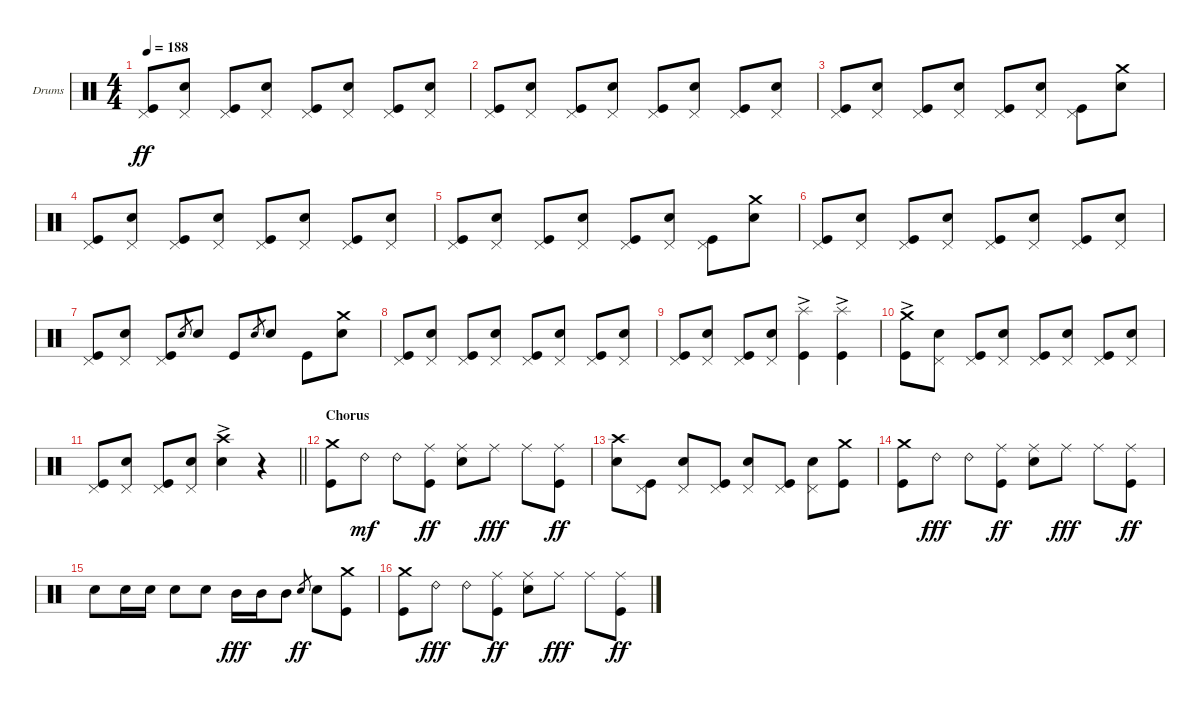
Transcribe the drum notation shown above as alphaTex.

\bracketExtendMode groupsimilarinstruments
\firstSystemTrackNameOrientation horizontal
\otherSystemsTrackNameOrientation horizontal
\track ("Drums" "Drums") {instrument percussion}
\staff {score}
\articulation defaults
\ts (4 4)
\tempo 188
\clef neutral
\ks c
("Kick (hit)" "Pedal Hi-Hat (hit)").8{dy ff} ("Snare (hit) 2" "Pedal Hi-Hat (hit)").8 ("Kick (hit)" "Pedal Hi-Hat (hit)").8 ("Snare (hit) 2" "Pedal Hi-Hat (hit)").8 ("Kick (hit)" "Pedal Hi-Hat (hit)").8 ("Snare (hit) 2" "Pedal Hi-Hat (hit)").8 ("Kick (hit)" "Pedal Hi-Hat (hit)").8 ("Snare (hit) 2" "Pedal Hi-Hat (hit)").8 |
("Kick (hit)" "Pedal Hi-Hat (hit)").8 ("Snare (hit) 2" "Pedal Hi-Hat (hit)").8 ("Kick (hit)" "Pedal Hi-Hat (hit)").8 ("Snare (hit) 2" "Pedal Hi-Hat (hit)").8 ("Kick (hit)" "Pedal Hi-Hat (hit)").8 ("Snare (hit) 2" "Pedal Hi-Hat (hit)").8 ("Kick (hit)" "Pedal Hi-Hat (hit)").8 ("Snare (hit) 2" "Pedal Hi-Hat (hit)").8 |
("Kick (hit)" "Pedal Hi-Hat (hit)").8 ("Snare (hit) 2" "Pedal Hi-Hat (hit)").8 ("Kick (hit)" "Pedal Hi-Hat (hit)").8 ("Snare (hit) 2" "Pedal Hi-Hat (hit)").8 ("Kick (hit)" "Pedal Hi-Hat (hit)").8 ("Snare (hit) 2" "Pedal Hi-Hat (hit)").8 ("Kick (hit)" "Pedal Hi-Hat (hit)").8 ("Snare (hit) 2" "Crash medium (hit)").8 |
("Kick (hit)" "Pedal Hi-Hat (hit)").8 ("Snare (hit) 2" "Pedal Hi-Hat (hit)").8 ("Kick (hit)" "Pedal Hi-Hat (hit)").8 ("Snare (hit) 2" "Pedal Hi-Hat (hit)").8 ("Kick (hit)" "Pedal Hi-Hat (hit)").8 ("Snare (hit) 2" "Pedal Hi-Hat (hit)").8 ("Kick (hit)" "Pedal Hi-Hat (hit)").8 ("Snare (hit) 2" "Pedal Hi-Hat (hit)").8 |
("Kick (hit)" "Pedal Hi-Hat (hit)").8 ("Snare (hit) 2" "Pedal Hi-Hat (hit)").8 ("Kick (hit)" "Pedal Hi-Hat (hit)").8 ("Snare (hit) 2" "Pedal Hi-Hat (hit)").8 ("Kick (hit)" "Pedal Hi-Hat (hit)").8 ("Snare (hit) 2" "Pedal Hi-Hat (hit)").8 ("Kick (hit)" "Pedal Hi-Hat (hit)").8 ("Snare (hit) 2" "Crash medium (hit)").8 |
("Kick (hit)" "Pedal Hi-Hat (hit)").8 ("Snare (hit) 2" "Pedal Hi-Hat (hit)").8 ("Kick (hit)" "Pedal Hi-Hat (hit)").8 ("Snare (hit) 2" "Pedal Hi-Hat (hit)").8 ("Kick (hit)" "Pedal Hi-Hat (hit)").8 ("Snare (hit) 2" "Pedal Hi-Hat (hit)").8 ("Kick (hit)" "Pedal Hi-Hat (hit)").8 ("Snare (hit) 2" "Pedal Hi-Hat (hit)").8 |
("Kick (hit)" "Pedal Hi-Hat (hit)").8 ("Snare (hit) 2" "Pedal Hi-Hat (hit)").8 ("Kick (hit)" "Pedal Hi-Hat (hit)").8 "Snare (hit) 2".8{gr} "Snare (hit) 2".8 "Kick (hit)".8 "Snare (hit) 2".8{gr} "Snare (hit) 2".8 "Kick (hit)".8 ("Snare (hit) 2" "Crash medium (hit)").8 |
("Kick (hit)" "Pedal Hi-Hat (hit)").8 ("Snare (hit) 2" "Pedal Hi-Hat (hit)").8 ("Kick (hit)" "Pedal Hi-Hat (hit)").8 ("Snare (hit) 2" "Pedal Hi-Hat (hit)").8 ("Kick (hit)" "Pedal Hi-Hat (hit)").8 ("Snare (hit) 2" "Pedal Hi-Hat (hit)").8 ("Kick (hit)" "Pedal Hi-Hat (hit)").8 ("Snare (hit) 2" "Pedal Hi-Hat (hit)").8 |
("Kick (hit)" "Pedal Hi-Hat (hit)").8 ("Snare (hit) 2" "Pedal Hi-Hat (hit)").8 ("Kick (hit)" "Pedal Hi-Hat (hit)").8 ("Snare (hit) 2" "Pedal Hi-Hat (hit)").8 ("Kick (hit)" "Splash (hit)"{ac}).4 ("Kick (hit)" "Splash (hit)"{ac}).4 |
("Kick (hit)" "Crash medium (hit)"{ac}).8 ("Snare (hit) 2" "Pedal Hi-Hat (hit)").8 ("Kick (hit)" "Pedal Hi-Hat (hit)").8 ("Snare (hit) 2" "Pedal Hi-Hat (hit)").8 ("Kick (hit)" "Pedal Hi-Hat (hit)").8 ("Snare (hit) 2" "Pedal Hi-Hat (hit)").8 ("Kick (hit)" "Pedal Hi-Hat (hit)").8 ("Snare (hit) 2" "Pedal Hi-Hat (hit)").8 |
\barLineRight lightlight
("Kick (hit)" "Pedal Hi-Hat (hit)").8 ("Snare (hit) 2" "Pedal Hi-Hat (hit)").8 ("Kick (hit)" "Pedal Hi-Hat (hit)").8 ("Snare (hit) 2" "Pedal Hi-Hat (hit)").8 ("Snare (hit) 2" "Crash high (hit)"{ac}).4 r.4 |
\section ("" "Chorus")
("Kick (hit)" "Crash medium (hit)").8 "Ride (bell) 2".8{dy mf} "Ride (bell) 2".8 ("Kick (hit)" "Ride (middle)").8{dy ff} ("Snare (hit) 2" "Ride (middle)").8 "Ride (middle)".8{dy fff} "Ride (middle)".8 ("Ride (middle)" "Kick (hit)").8{dy ff} |
("Snare (hit) 2" "Crash high (hit)").8 ("Kick (hit)" "Pedal Hi-Hat (hit)").8 ("Snare (hit) 2" "Pedal Hi-Hat (hit)").8 ("Kick (hit)" "Pedal Hi-Hat (hit)").8 ("Snare (hit) 2" "Pedal Hi-Hat (hit)").8 ("Kick (hit)" "Pedal Hi-Hat (hit)").8 ("Snare (hit) 2" "Pedal Hi-Hat (hit)").8 ("Kick (hit)" "Crash medium (hit)").8 |
("Kick (hit)" "Crash medium (hit)").8 "Ride (bell) 2".8{dy fff} "Ride (bell) 2".8 ("Kick (hit)" "Ride (middle)").8{dy ff} ("Snare (hit) 2" "Ride (middle)").8 "Ride (middle)".8{dy fff} "Ride (middle)".8 ("Ride (middle)" "Kick (hit)").8{dy ff} |
"Snare (hit) 2".8 "Snare (hit) 2".16 "Snare (hit) 2".16 "Snare (hit) 2".8 "Snare (hit) 2".8 "Mid Tom (hit)".16{dy fff} "Mid Tom (hit)".16 "Mid Tom (hit)".8 "Snare (hit) 2".8{gr dy ff} "Snare (hit) 2".8 ("Kick (hit)" "Crash medium (hit)").8 |
("Kick (hit)" "Crash medium (hit)").8 "Ride (bell) 2".8{dy fff} "Ride (bell) 2".8 ("Kick (hit)" "Ride (middle)").8{dy ff} ("Snare (hit) 2" "Ride (middle)").8 "Ride (middle)".8{dy fff} "Ride (middle)".8 ("Ride (middle)" "Kick (hit)").8{dy ff}
